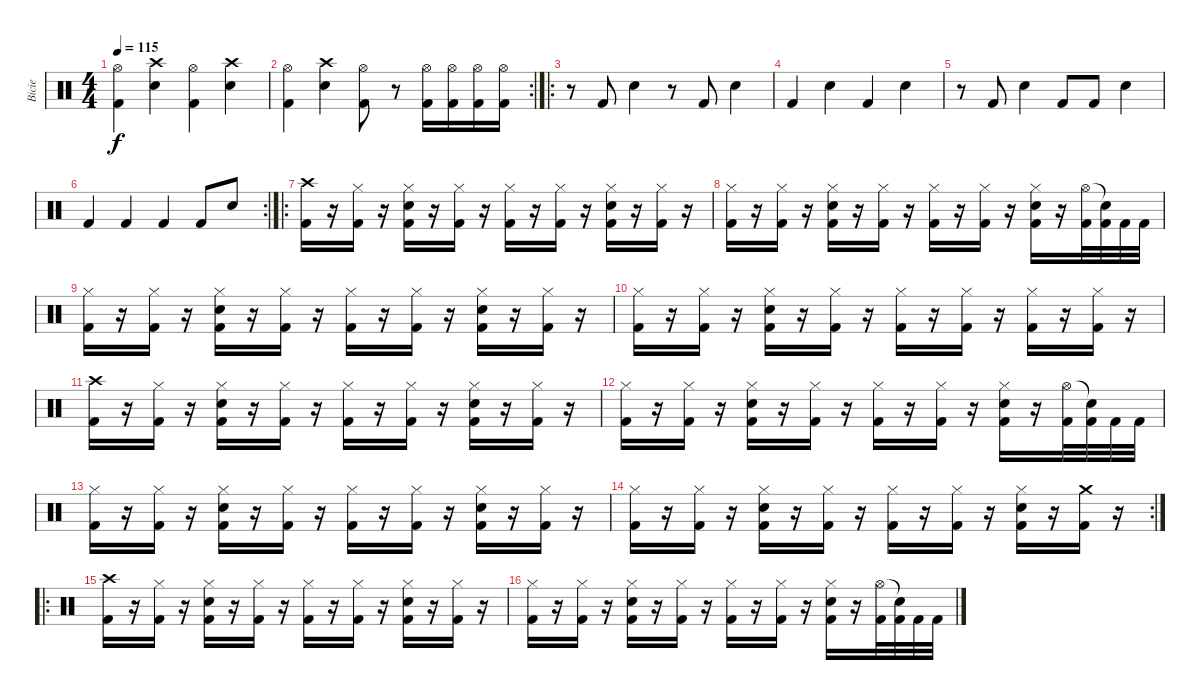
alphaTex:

\track ("Bicie" "Bicie") {instrument percussion}
\staff {score}
\articulation defaults
\ts (4 4)
\tempo 115
\clef neutral
\ks c
("Hi-Hat (open)" "Kick (hit) 2").4{dy f} ("Crash high (hit)" "Electric Snare (hit)").4 ("Hi-Hat (open)" "Kick (hit) 2").4 ("Crash high (hit)" "Electric Snare (hit)").4 |
\rc 2
("Hi-Hat (open)" "Kick (hit) 2").4 ("Crash high (hit)" "Electric Snare (hit)").4 ("Hi-Hat (open)" "Kick (hit) 2").8 r.8 ("Hi-Hat (open)" "Kick (hit) 2").16 ("Hi-Hat (open)" "Kick (hit) 2").16 ("Hi-Hat (open)" "Kick (hit) 2").16 ("Hi-Hat (open)" "Kick (hit) 2").16 |
\ro
r.8 "Kick (hit) 2".8 "Snare (hit) 2".4 r.8 "Kick (hit) 2".8 "Snare (hit) 2".4 |
"Kick (hit) 2".4 "Snare (hit) 2".4 "Kick (hit) 2".4 "Snare (hit) 2".4 |
r.8 "Kick (hit) 2".8 "Snare (hit) 2".4 "Kick (hit) 2".8 "Kick (hit) 2".8 "Snare (hit) 2".4 |
\rc 2 "Kick (hit) 2".4 "Kick (hit) 2".4 "Kick (hit) 2".4 "Kick (hit) 2".8 "Snare (hit) 2".8
|
\ro
("Crash high (hit)" "Kick (hit) 2").16 r.16 ("Hi-Hat (closed)" "Kick (hit) 2").16 r.16 ("Hi-Hat (closed)" "Electric Snare (hit)" "Kick (hit) 2").16 r.16 ("Hi-Hat (closed)" "Kick (hit) 2").16 r.16 ("Hi-Hat (closed)" "Kick (hit) 2").16 r.16 ("Hi-Hat (closed)" "Kick (hit) 2").16 r.16 ("Hi-Hat (closed)" "Electric Snare (hit)" "Kick (hit) 2").16 r.16 ("Hi-Hat (closed)" "Kick (hit) 2").16 r.16 |
("Hi-Hat (closed)" "Kick (hit) 2").16 r.16 ("Hi-Hat (closed)" "Kick (hit) 2").16 r.16 ("Hi-Hat (closed)" "Electric Snare (hit)" "Kick (hit) 2").16 r.16 ("Hi-Hat (closed)" "Kick (hit) 2").16 r.16 ("Hi-Hat (closed)" "Kick (hit) 2").16 r.16 ("Hi-Hat (closed)" "Kick (hit) 2").16 r.16 ("Hi-Hat (closed)" "Electric Snare (hit)" "Kick (hit) 2").16 r.16 ("Hi-Hat (open)" "Kick (hit) 2").32 ("Snare (hit)"{t} "Kick (hit) 2").32 "Kick (hit) 2".32 "Kick (hit) 2".32 |
("Hi-Hat (closed)" "Kick (hit) 2").16 r.16 ("Hi-Hat (closed)" "Kick (hit) 2").16 r.16 ("Hi-Hat (closed)" "Electric Snare (hit)" "Kick (hit) 2").16 r.16 ("Hi-Hat (closed)" "Kick (hit) 2").16 r.16 ("Hi-Hat (closed)" "Kick (hit) 2").16 r.16 ("Hi-Hat (closed)" "Kick (hit) 2").16 r.16 ("Hi-Hat (closed)" "Electric Snare (hit)" "Kick (hit) 2").16 r.16 ("Hi-Hat (closed)" "Kick (hit) 2").16 r.16 |
("Hi-Hat (closed)" "Kick (hit) 2").16 r.16 ("Hi-Hat (closed)" "Kick (hit) 2").16 r.16 ("Hi-Hat (closed)" "Electric Snare (hit)" "Kick (hit) 2").16 r.16 ("Hi-Hat (closed)" "Kick (hit) 2").16 r.16 ("Hi-Hat (closed)" "Kick (hit) 2").16 r.16 ("Hi-Hat (closed)" "Kick (hit) 2").16 r.16 ("Hi-Hat (closed)" "Kick (hit) 2").16 r.16 ("Hi-Hat (closed)" "Kick (hit) 2").16 r.16 |
("Crash high (hit)" "Kick (hit) 2").16 r.16 ("Hi-Hat (closed)" "Kick (hit) 2").16 r.16 ("Hi-Hat (closed)" "Electric Snare (hit)" "Kick (hit) 2").16 r.16 ("Hi-Hat (closed)" "Kick (hit) 2").16 r.16 ("Hi-Hat (closed)" "Kick (hit) 2").16 r.16 ("Hi-Hat (closed)" "Kick (hit) 2").16 r.16 ("Hi-Hat (closed)" "Electric Snare (hit)" "Kick (hit) 2").16 r.16 ("Hi-Hat (closed)" "Kick (hit) 2").16 r.16 |
("Hi-Hat (closed)" "Kick (hit) 2").16 r.16 ("Hi-Hat (closed)" "Kick (hit) 2").16 r.16 ("Hi-Hat (closed)" "Electric Snare (hit)" "Kick (hit) 2").16 r.16 ("Hi-Hat (closed)" "Kick (hit) 2").16 r.16 ("Hi-Hat (closed)" "Kick (hit) 2").16 r.16 ("Hi-Hat (closed)" "Kick (hit) 2").16 r.16 ("Hi-Hat (closed)" "Electric Snare (hit)" "Kick (hit) 2").16 r.16 ("Hi-Hat (open)" "Kick (hit) 2").32 ("Snare (hit)"{t} "Kick (hit) 2").32 "Kick (hit) 2".32 "Kick (hit) 2".32 |
("Hi-Hat (closed)" "Kick (hit) 2").16 r.16 ("Hi-Hat (closed)" "Kick (hit) 2").16 r.16 ("Hi-Hat (closed)" "Electric Snare (hit)" "Kick (hit) 2").16 r.16 ("Hi-Hat (closed)" "Kick (hit) 2").16 r.16 ("Hi-Hat (closed)" "Kick (hit) 2").16 r.16 ("Hi-Hat (closed)" "Kick (hit) 2").16 r.16 ("Hi-Hat (closed)" "Electric Snare (hit)" "Kick (hit) 2").16 r.16 ("Hi-Hat (closed)" "Kick (hit) 2").16 r.16 |
\rc 2
("Hi-Hat (closed)" "Kick (hit) 2").16 r.16 ("Hi-Hat (closed)" "Kick (hit) 2").16 r.16 ("Hi-Hat (closed)" "Electric Snare (hit)" "Kick (hit) 2").16 r.16 ("Hi-Hat (closed)" "Kick (hit) 2").16 r.16 ("Hi-Hat (closed)" "Kick (hit) 2").16 r.16 ("Hi-Hat (closed)" "Kick (hit) 2").16 r.16 ("Hi-Hat (closed)" "Electric Snare (hit)" "Kick (hit) 2").16 r.16 ("Crash medium (hit)" "Kick (hit) 2").16 r.16 |
\ro
("Crash high (hit)" "Kick (hit) 2").16 r.16 ("Hi-Hat (closed)" "Kick (hit) 2").16 r.16 ("Hi-Hat (closed)" "Electric Snare (hit)" "Kick (hit) 2").16 r.16 ("Hi-Hat (closed)" "Kick (hit) 2").16 r.16 ("Hi-Hat (closed)" "Kick (hit) 2").16 r.16 ("Hi-Hat (closed)" "Kick (hit) 2").16 r.16 ("Hi-Hat (closed)" "Electric Snare (hit)" "Kick (hit) 2").16 r.16 ("Hi-Hat (closed)" "Kick (hit) 2").16 r.16 |
("Hi-Hat (closed)" "Kick (hit) 2").16 r.16 ("Hi-Hat (closed)" "Kick (hit) 2").16 r.16 ("Hi-Hat (closed)" "Electric Snare (hit)" "Kick (hit) 2").16 r.16 ("Hi-Hat (closed)" "Kick (hit) 2").16 r.16 ("Hi-Hat (closed)" "Kick (hit) 2").16 r.16 ("Hi-Hat (closed)" "Kick (hit) 2").16 r.16 ("Hi-Hat (closed)" "Electric Snare (hit)" "Kick (hit) 2").16 r.16 ("Hi-Hat (open)" "Kick (hit) 2").32 ("Snare (hit)"{t} "Kick (hit) 2").32 "Kick (hit) 2".32 "Kick (hit) 2".32
